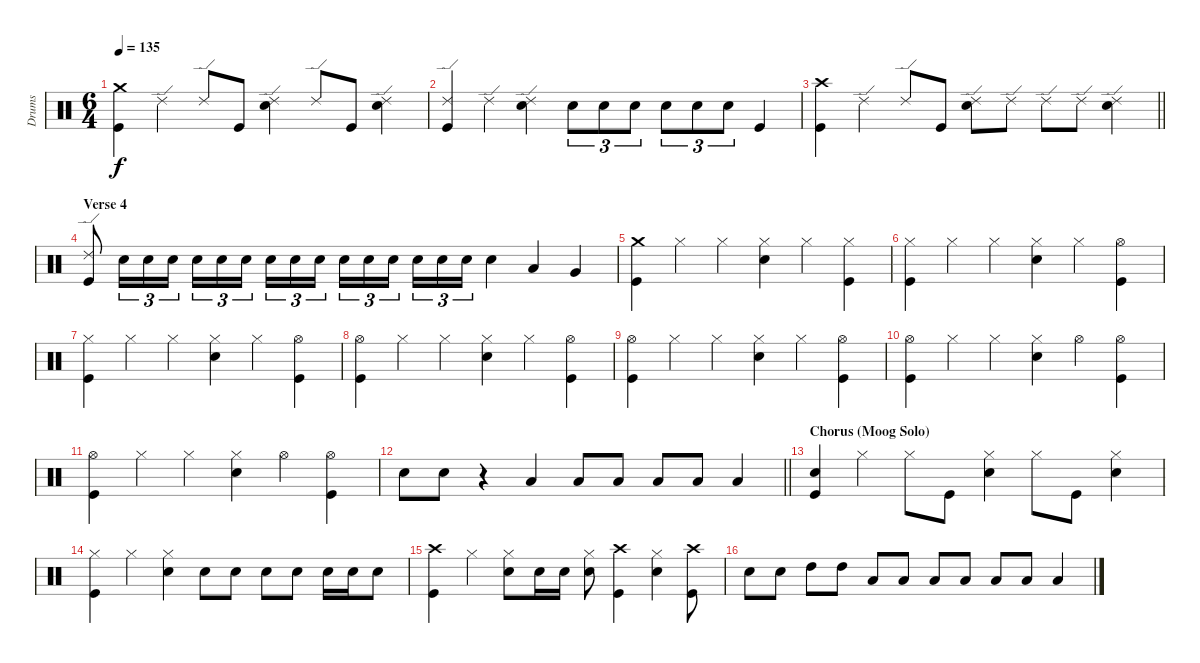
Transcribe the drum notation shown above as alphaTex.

\track ("Drums" "Drums") {instrument percussion}
\staff {score}
\articulation defaults
\ts (6 4)
\tempo 135
\clef neutral
\ks c
("Crash medium (hit)" "Kick (hit)").4{dy f} "Ride (edge) 2".4 "Ride (edge) 2".8 "Kick (hit)".8 ("Ride (edge) 2" "Electric Snare (hit)").4 "Ride (edge) 2".8 "Kick (hit)".8 ("Ride (edge) 2" "Electric Snare (hit)").4 |
("Ride (edge) 2" "Kick (hit)").4 "Ride (edge) 2".4 ("Ride (edge) 2" "Electric Snare (hit)").4 "Electric Snare (hit)".8{tu (3 2)} "Electric Snare (hit)".8{tu (3 2)} "Electric Snare (hit)".8{tu (3 2)} "Electric Snare (hit)".8{tu (3 2)} "Electric Snare (hit)".8{tu (3 2)} "Electric Snare (hit)".8{tu (3 2)} "Kick (hit)".4 |
\barLineRight lightlight
("Crash high (hit)" "Kick (hit)").4 "Ride (edge) 2".4 "Ride (edge) 2".8 "Kick (hit)".8 ("Ride (edge) 2" "Electric Snare (hit)").8 "Ride (edge) 2".8 "Ride (edge) 2".8 "Ride (edge) 2".8 ("Ride (edge) 2" "Electric Snare (hit)").4 |
\section ("" "Verse 4")
("Ride (edge) 2" "Kick (hit)").8 "Electric Snare (hit)".16{tu (3 2)} "Electric Snare (hit)".16{tu (3 2)} "Electric Snare (hit)".16{tu (3 2) beam splitsecondary} "Electric Snare (hit)".16{tu (3 2)} "Electric Snare (hit)".16{tu (3 2)} "Electric Snare (hit)".16{tu (3 2) beam splitsecondary} "Electric Snare (hit)".16{tu (3 2)} "Electric Snare (hit)".16{tu (3 2)} "Electric Snare (hit)".16{tu (3 2) beam splitsecondary} "Electric Snare (hit)".16{tu (3 2)} "Electric Snare (hit)".16{tu (3 2)} "Electric Snare (hit)".16{tu (3 2) beam splitsecondary} "Electric Snare (hit)".16{tu (3 2)} "Electric Snare (hit)".16{tu (3 2)} "Electric Snare (hit)".16{tu (3 2)} "Electric Snare (hit)".4 "Low Tom (hit)".4 "Very Low Tom (hit)".4 |
("Crash medium (hit)" "Kick (hit)").4 "Hi-Hat (closed)".4 "Hi-Hat (closed)".4 ("Hi-Hat (closed)" "Electric Snare (hit)").4 "Hi-Hat (closed)".4 ("Hi-Hat (closed)" "Kick (hit)").4 |
("Hi-Hat (closed)" "Kick (hit)").4 "Hi-Hat (closed)".4 "Hi-Hat (closed)".4 ("Hi-Hat (closed)" "Electric Snare (hit)").4 "Hi-Hat (closed)".4 ("Hi-Hat (open)" "Kick (hit)").4 |
("Hi-Hat (closed)" "Kick (hit)").4 "Hi-Hat (closed)".4 "Hi-Hat (closed)".4 ("Hi-Hat (closed)" "Electric Snare (hit)").4 "Hi-Hat (closed)".4 ("Hi-Hat (open)" "Kick (hit)").4 |
("Hi-Hat (open)" "Kick (hit)").4 "Hi-Hat (closed)".4 "Hi-Hat (closed)".4 ("Hi-Hat (closed)" "Electric Snare (hit)").4 "Hi-Hat (closed)".4 ("Hi-Hat (open)" "Kick (hit)").4 |
("Hi-Hat (open)" "Kick (hit)").4 "Hi-Hat (closed)".4 "Hi-Hat (closed)".4 ("Hi-Hat (closed)" "Electric Snare (hit)").4 "Hi-Hat (closed)".4 ("Hi-Hat (open)" "Kick (hit)").4 |
("Hi-Hat (open)" "Kick (hit)").4 "Hi-Hat (closed)".4 "Hi-Hat (closed)".4 ("Hi-Hat (closed)" "Electric Snare (hit)").4 "Hi-Hat (open)".4 ("Hi-Hat (open)" "Kick (hit)").4 |
("Hi-Hat (open)" "Kick (hit)").4 "Hi-Hat (closed)".4 "Hi-Hat (closed)".4 ("Hi-Hat (closed)" "Electric Snare (hit)").4 "Hi-Hat (open)".4 ("Hi-Hat (open)" "Kick (hit)").4 |
\barLineRight lightlight "Electric Snare (hit)".8 "Electric Snare (hit)".8
r.4 "Low Tom (hit)".4 "Low Floor Tom (hit)".8 "Low Floor Tom (hit)".8 "Low Floor Tom (hit)".8 "Low Floor Tom (hit)".8 "Low Floor Tom (hit)".4 |
\section ("" "Chorus (Moog Solo)")
("Electric Snare (hit)" "Kick (hit)").4 "Hi-Hat (closed)".4 "Hi-Hat (closed)".8 "Kick (hit)".8 ("Hi-Hat (closed)" "Electric Snare (hit)").4 "Hi-Hat (closed)".8 "Kick (hit)".8 ("Electric Snare (hit)" "Hi-Hat (closed)").4 |
("Hi-Hat (closed)" "Kick (hit)").4 "Hi-Hat (closed)".4 ("Hi-Hat (closed)" "Electric Snare (hit)").4 "Electric Snare (hit)".8 "Electric Snare (hit)".8 "Electric Snare (hit)".8 "Electric Snare (hit)".8 "Electric Snare (hit)".16 "Electric Snare (hit)".16 "Electric Snare (hit)".8 |
("Crash high (hit)" "Kick (hit)").4 "Hi-Hat (closed)".4 ("Hi-Hat (closed)" "Electric Snare (hit)").8 "Electric Snare (hit)".16 "Electric Snare (hit)".16 ("Hi-Hat (closed)" "Electric Snare (hit)").8 ("Kick (hit)" "Crash high (hit)").4 ("Hi-Hat (closed)" "Electric Snare (hit)").4 ("Crash high (hit)" "Kick (hit)").8 |
"Electric Snare (hit)".8 "Electric Snare (hit)".8 "High Tom (hit)".8 "High Tom (hit)".8 "Low Tom (hit)".8 "Low Tom (hit)".8 "Low Tom (hit)".8 "Low Floor Tom (hit)".8 "Low Floor Tom (hit)".8 "Low Floor Tom (hit)".8 "Low Floor Tom (hit)".4
